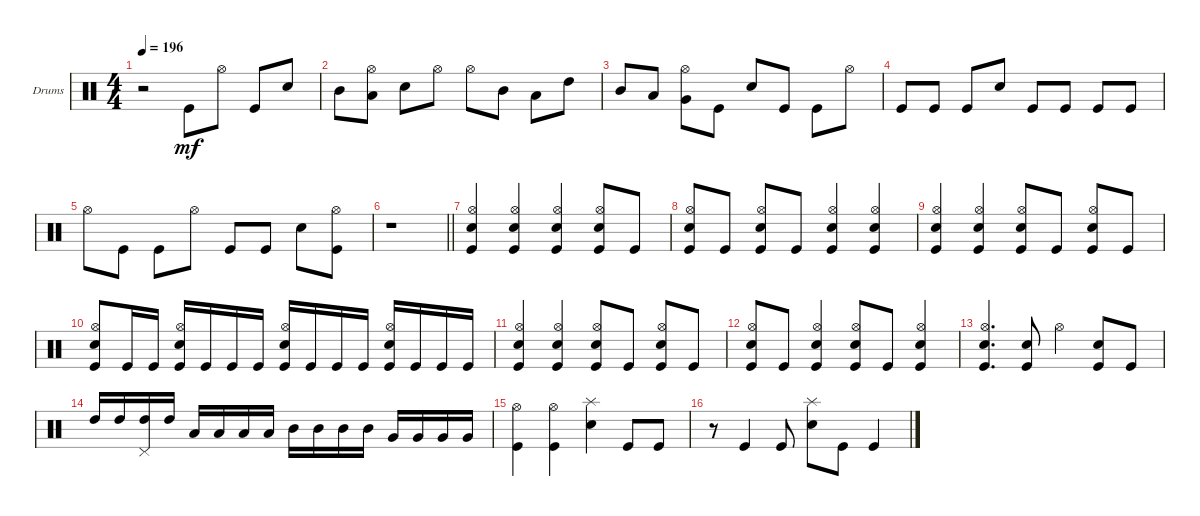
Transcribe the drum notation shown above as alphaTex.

\defaultSystemsLayout 4
\bracketExtendMode groupsimilarinstruments
\firstSystemTrackNameOrientation horizontal
\otherSystemsTrackNameOrientation horizontal
\track ("Drumkit" "Drums") {instrument percussion}
\staff {score}
\articulation defaults
\ts (4 4)
\tempo 196
\clef neutral
\scale
0.333333
\ks c
r.2{dy mf} "Kick (hit)".8 "Hi-Hat (open)".8 "Kick (hit)".8 "Snare (hit) 2".8 |
\scale
0.333333 "Mid Tom (hit)".8 ("Low Tom (hit)" "Hi-Hat (open)").8 "Snare (hit) 2".8 "Hi-Hat (open)".8 "Hi-Hat (open)".8 "Mid Tom (hit)".8 "Low Tom (hit)".8 "High Tom (hit)".8 |
\scale
0.333333 "Mid Tom (hit)".8 "Low Tom (hit)".8 ("Very Low Tom (hit)" "Hi-Hat (open)").8 "Kick (hit)".8 "Snare (hit) 2".8 "Kick (hit)".8 "Kick (hit)".8 "Hi-Hat (open)".8 |
\scale
0.333333 "Kick (hit)".8 "Kick (hit)".8 "Kick (hit)".8 "Snare (hit) 2".8 "Kick (hit)".8 "Kick (hit)".8 "Kick (hit)".8 "Kick (hit)".8 |
\scale
0.333333 "Hi-Hat (open)".8 "Kick (hit)".8 "Kick (hit)".8 "Hi-Hat (open)".8 "Kick (hit)".8 "Kick (hit)".8 "Snare (hit) 2".8 ("Kick (hit)" "Hi-Hat (open)").8 |
\scale
0.333333
\barLineRight lightlight
r.1 |
\scale
0.333333 ("Kick (hit)" "Snare (hit) 2" "Hi-Hat (open)").4 ("Kick (hit)" "Snare (hit) 2" "Hi-Hat (open)").4 ("Kick (hit)" "Snare (hit) 2" "Hi-Hat (open)").4 ("Snare (hit) 2" "Hi-Hat (open)" "Kick (hit)").8 "Kick (hit)".8 |
\scale
0.333333 ("Snare (hit) 2" "Hi-Hat (open)" "Kick (hit)").8 "Kick (hit)".8 ("Snare (hit) 2" "Hi-Hat (open)" "Kick (hit)").8 "Kick (hit)".8 ("Snare (hit) 2" "Hi-Hat (open)" "Kick (hit)").4 ("Kick (hit)" "Snare (hit) 2" "Hi-Hat (open)").4 |
\scale
0.333333 ("Snare (hit) 2" "Hi-Hat (open)" "Kick (hit)").4 ("Kick (hit)" "Snare (hit) 2" "Hi-Hat (open)").4 ("Snare (hit) 2" "Hi-Hat (open)" "Kick (hit)").8 "Kick (hit)".8 ("Snare (hit) 2" "Hi-Hat (open)" "Kick (hit)").8 "Kick (hit)".8 |
\scale
0.333333 ("Snare (hit) 2" "Hi-Hat (open)" "Kick (hit)").8 "Kick (hit)".16 "Kick (hit)".16 ("Kick (hit)" "Snare (hit) 2" "Hi-Hat (open)").16 "Kick (hit)".16 "Kick (hit)".16 "Kick (hit)".16 ("Kick (hit)" "Snare (hit) 2" "Hi-Hat (open)").16 "Kick (hit)".16 "Kick (hit)".16 "Kick (hit)".16 ("Kick (hit)" "Snare (hit) 2" "Hi-Hat (open)").16 "Kick (hit)".16 "Kick (hit)".16 "Kick (hit)".16 |
\scale
0.333333 ("Kick (hit)" "Snare (hit) 2" "Hi-Hat (open)").4 ("Kick (hit)" "Snare (hit) 2" "Hi-Hat (open)").4 ("Hi-Hat (open)" "Snare (hit) 2" "Kick (hit)").8 "Kick (hit)".8 ("Snare (hit) 2" "Hi-Hat (open)" "Kick (hit)").8 "Kick (hit)".8 |
\scale
0.333333 ("Hi-Hat (open)" "Snare (hit) 2" "Kick (hit)").8 "Kick (hit)".8 ("Kick (hit)" "Snare (hit) 2" "Hi-Hat (open)").4 ("Snare (hit) 2" "Hi-Hat (open)" "Kick (hit)").8 "Kick (hit)".8 ("Kick (hit)" "Snare (hit) 2" "Hi-Hat (open)").4 |
\scale
0.333333 ("Kick (hit)" "Snare (hit) 2" "Hi-Hat (open)").4{d} ("Kick (hit)" "Snare (hit) 2").8 "Hi-Hat (open)".4 ("Snare (hit) 2" "Kick (hit)").8 "Kick (hit)".8 |
\scale
0.333333 "High Tom (hit)".16 "High Tom (hit)".16 ("High Tom (hit)" "Pedal Hi-Hat (hit)").16 "High Tom (hit)".16 "Low Tom (hit)".16 "Low Tom (hit)".16 "Low Tom (hit)".16 "Low Tom (hit)".16 "Mid Tom (hit)".16 "Mid Tom (hit)".16 "Mid Tom (hit)".16 "Mid Tom (hit)".16 "Very Low Tom (hit)".16 "Very Low Tom (hit)".16 "Very Low Tom (hit)".16 "Very Low Tom (hit)".16 |
\scale
0.333333 ("Kick (hit)" "Hi-Hat (open)").4 ("Kick (hit)" "Hi-Hat (open)").4 ("Snare (hit) 2" "Splash (hit)").4 "Kick (hit)".8 "Kick (hit)".8 |
\scale
0.333333 r.8 "Kick (hit)".4 "Kick (hit)".8 ("Snare (hit) 2" "Splash (hit)").8 "Kick (hit)".8 "Kick (hit)".4
